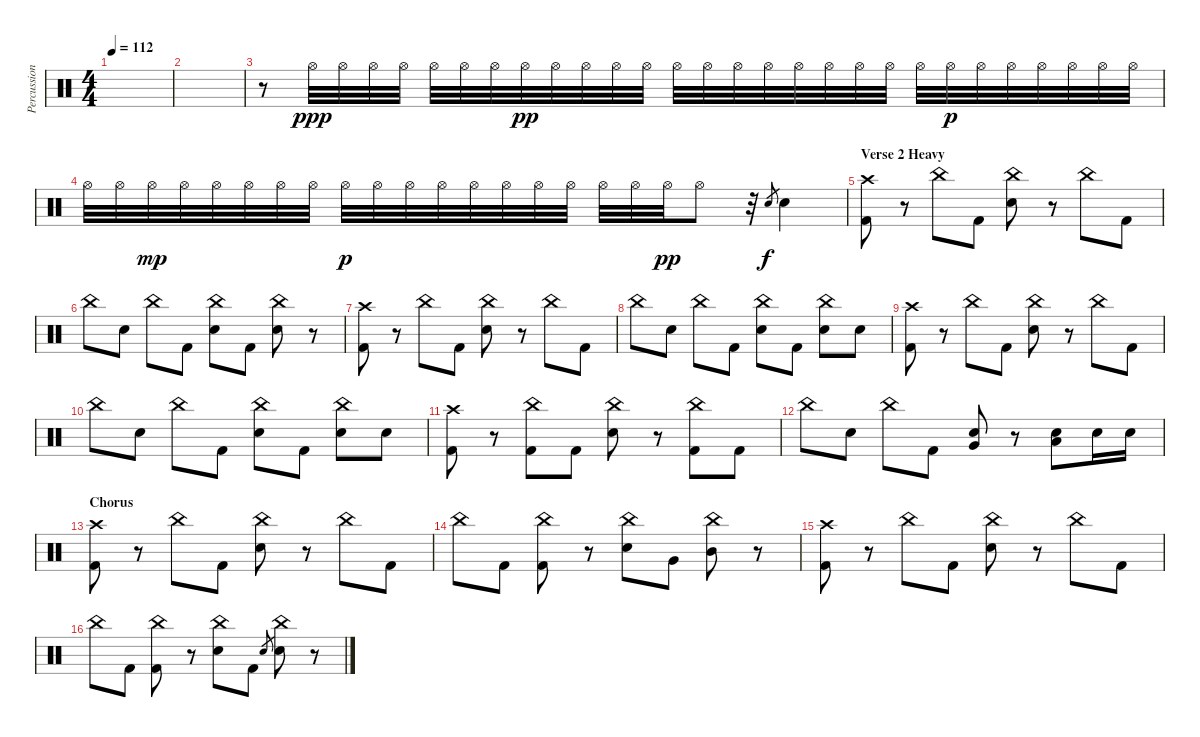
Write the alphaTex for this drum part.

\track ("Percussion" "Percussion") {instrument percussion}
\staff {score}
\articulation defaults
\ts (4 4)
\tempo 112
\clef neutral
\ks c
|
|
r.8 "Hi-Hat (open)".32{dy ppp} "Hi-Hat (open)".32 "Hi-Hat (open)".32 "Hi-Hat (open)".32 "Hi-Hat (open)".32 "Hi-Hat (open)".32 "Hi-Hat (open)".32 "Hi-Hat (open)".32{dy pp} "Hi-Hat (open)".32 "Hi-Hat (open)".32 "Hi-Hat (open)".32 "Hi-Hat (open)".32 "Hi-Hat (open)".32 "Hi-Hat (open)".32 "Hi-Hat (open)".32 "Hi-Hat (open)".32 "Hi-Hat (open)".32 "Hi-Hat (open)".32 "Hi-Hat (open)".32 "Hi-Hat (open)".32 "Hi-Hat (open)".32 "Hi-Hat (open)".32{dy p} "Hi-Hat (open)".32 "Hi-Hat (open)".32 "Hi-Hat (open)".32 "Hi-Hat (open)".32 "Hi-Hat (open)".32 "Hi-Hat (open)".32 |
"Hi-Hat (open)".32 "Hi-Hat (open)".32 "Hi-Hat (open)".32{dy mp} "Hi-Hat (open)".32 "Hi-Hat (open)".32 "Hi-Hat (open)".32 "Hi-Hat (open)".32 "Hi-Hat (open)".32 "Hi-Hat (open)".32{dy p} "Hi-Hat (open)".32 "Hi-Hat (open)".32 "Hi-Hat (open)".32 "Hi-Hat (open)".32 "Hi-Hat (open)".32 "Hi-Hat (open)".32 "Hi-Hat (open)".32 "Hi-Hat (open)".32 "Hi-Hat (open)".32 "Hi-Hat (open)".32{dy pp} "Hi-Hat (open)".8 r.32 "Snare (hit) 2".8{gr dy f} "Snare (hit) 2".4 |
\section ("" "Verse 2 Heavy")
("Crash high (hit)" "Kick (hit) 2").8 r.8 "China (hit)".8 "Kick (hit) 2".8 ("China (hit)" "Snare (hit) 2").8 r.8 "China (hit)".8 "Kick (hit) 2".8 |
"China (hit)".8 "Snare (hit) 2".8 "China (hit)".8 "Kick (hit) 2".8 ("China (hit)" "Snare (hit) 2").8 "Kick (hit) 2".8 ("China (hit)" "Snare (hit) 2").8 r.8 |
("Crash high (hit)" "Kick (hit) 2").8 r.8 "China (hit)".8 "Kick (hit) 2".8 ("China (hit)" "Snare (hit) 2").8 r.8 "China (hit)".8 "Kick (hit) 2".8 |
"China (hit)".8 "Snare (hit) 2".8 "China (hit)".8 "Kick (hit) 2".8 ("China (hit)" "Snare (hit) 2").8 "Kick (hit) 2".8 ("China (hit)" "Snare (hit) 2").8 "Snare (hit) 2".8 |
("Crash high (hit)" "Kick (hit) 2").8 r.8 "China (hit)".8 "Kick (hit) 2".8 ("China (hit)" "Snare (hit) 2").8 r.8 "China (hit)".8 "Kick (hit) 2".8 |
"China (hit)".8 "Snare (hit) 2".8 "China (hit)".8 "Kick (hit) 2".8 ("China (hit)" "Snare (hit) 2").8 "Kick (hit) 2".8 ("China (hit)" "Snare (hit) 2").8 "Snare (hit) 2".8 |
("Crash high (hit)" "Kick (hit) 2").8 r.8 ("China (hit)" "Kick (hit) 2").8 "Kick (hit) 2".8 ("China (hit)" "Snare (hit) 2").8 r.8 ("China (hit)" "Kick (hit) 2").8 "Kick (hit) 2".8 |
"China (hit)".8 "Snare (hit) 2".8 "China (hit)".8 "Kick (hit) 2".8 ("Snare (hit) 2" "Very Low Tom (hit)").8 r.8 ("Snare (hit) 2" "Low Floor Tom (hit)").8 "Snare (hit) 2".16 "Snare (hit) 2".16 |
\section ("" "Chorus")
("Crash high (hit)" "Kick (hit) 2").8 r.8 "China (hit)".8 "Kick (hit) 2".8 ("China (hit)" "Snare (hit) 2").8 r.8 "China (hit)".8 "Kick (hit) 2".8 |
"China (hit)".8 "Kick (hit) 2".8 ("China (hit)" "Kick (hit) 2").8 r.8 ("China (hit)" "Snare (hit) 2").8 "Very Low Tom (hit)".8 ("China (hit)" "Mid Tom (hit)").8 r.8 |
("Crash high (hit)" "Kick (hit) 2").8 r.8 "China (hit)".8 "Kick (hit) 2".8 ("China (hit)" "Snare (hit) 2").8 r.8 "China (hit)".8 "Kick (hit) 2".8 |
"China (hit)".8 "Kick (hit) 2".8 ("China (hit)" "Kick (hit) 2").8 r.8 ("China (hit)" "Snare (hit) 2").8 "Kick (hit) 2".8 "Snare (hit) 2".8{gr} ("China (hit)" "Snare (hit) 2").8 r.8
